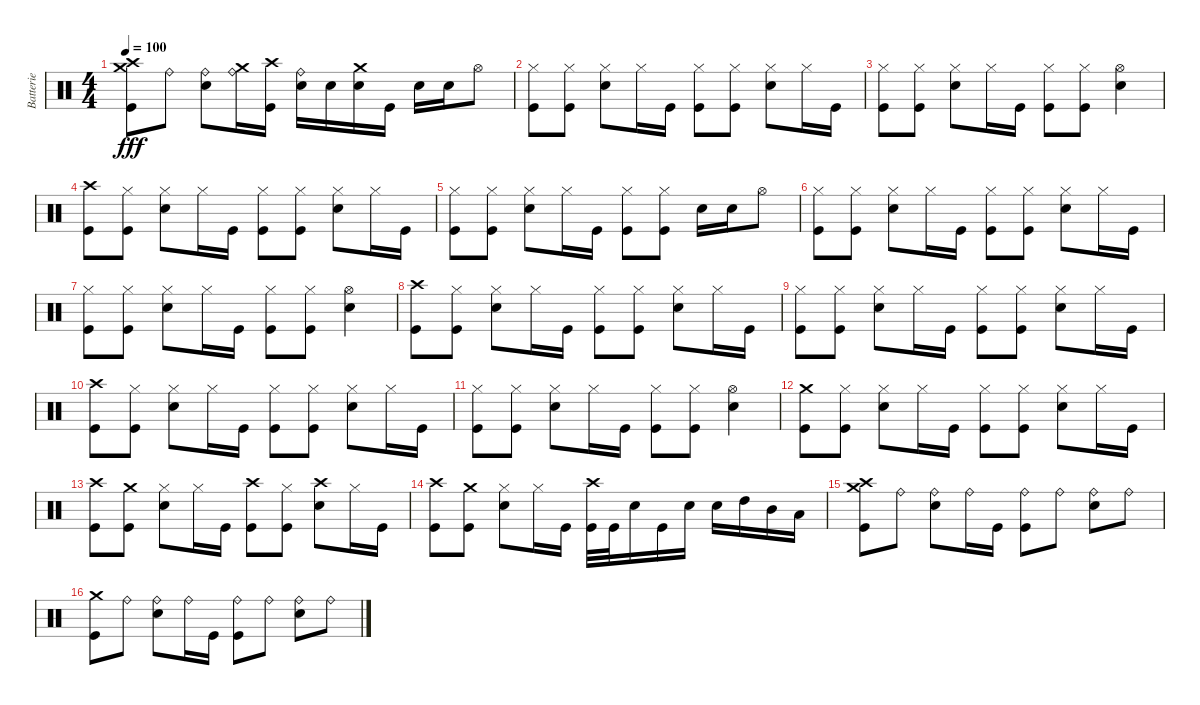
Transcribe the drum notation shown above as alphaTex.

\track ("Batterie" "Batterie") {instrument percussion}
\staff {score}
\articulation defaults
\ts (4 4)
\tempo 100
\clef neutral
\ks c
("Crash high (hit)" "Kick (hit)" "Crash medium (hit)").8{dy fff} "Ride (bell)".8 ("Ride (bell)" "Electric Snare (hit)").8 ("Ride (bell)" "Crash medium (hit)").16 ("Crash high (hit)" "Kick (hit)").16 ("Ride (bell)" "Electric Snare (hit)").16 "Electric Snare (hit)".16 ("Crash medium (hit)" "Electric Snare (hit)").16 "Kick (hit)".16 "Electric Snare (hit)".16 "Electric Snare (hit)".16 "Hi-Hat (open)".8 |
("Hi-Hat (closed)" "Kick (hit)").8 ("Hi-Hat (closed)" "Kick (hit)").8 ("Hi-Hat (closed)" "Electric Snare (hit)").8 "Hi-Hat (closed)".16 "Kick (hit)".16 ("Hi-Hat (closed)" "Kick (hit)").8 ("Hi-Hat (closed)" "Kick (hit)").8 ("Hi-Hat (closed)" "Electric Snare (hit)").8 "Hi-Hat (closed)".16 "Kick (hit)".16 |
("Hi-Hat (closed)" "Kick (hit)").8 ("Hi-Hat (closed)" "Kick (hit)").8 ("Hi-Hat (closed)" "Electric Snare (hit)").8 "Hi-Hat (closed)".16 "Kick (hit)".16 ("Hi-Hat (closed)" "Kick (hit)").8 ("Hi-Hat (closed)" "Kick (hit)").8 ("Hi-Hat (open)" "Electric Snare (hit)").4 |
("Crash high (hit)" "Kick (hit)").8 ("Hi-Hat (closed)" "Kick (hit)").8 ("Hi-Hat (closed)" "Electric Snare (hit)").8 "Hi-Hat (closed)".16 "Kick (hit)".16 ("Hi-Hat (closed)" "Kick (hit)").8 ("Hi-Hat (closed)" "Kick (hit)").8 ("Hi-Hat (closed)" "Electric Snare (hit)").8 "Hi-Hat (closed)".16 "Kick (hit)".16 |
("Hi-Hat (closed)" "Kick (hit)").8 ("Hi-Hat (closed)" "Kick (hit)").8 ("Hi-Hat (closed)" "Electric Snare (hit)").8 "Hi-Hat (closed)".16 "Kick (hit)".16 ("Hi-Hat (closed)" "Kick (hit)").8 ("Hi-Hat (closed)" "Kick (hit)").8 "Electric Snare (hit)".16 "Electric Snare (hit)".16 "Hi-Hat (open)".8 |
("Hi-Hat (closed)" "Kick (hit)").8 ("Hi-Hat (closed)" "Kick (hit)").8 ("Hi-Hat (closed)" "Electric Snare (hit)").8 "Hi-Hat (closed)".16 "Kick (hit)".16 ("Hi-Hat (closed)" "Kick (hit)").8 ("Hi-Hat (closed)" "Kick (hit)").8 ("Hi-Hat (closed)" "Electric Snare (hit)").8 "Hi-Hat (closed)".16 "Kick (hit)".16 |
("Hi-Hat (closed)" "Kick (hit)").8 ("Hi-Hat (closed)" "Kick (hit)").8 ("Hi-Hat (closed)" "Electric Snare (hit)").8 "Hi-Hat (closed)".16 "Kick (hit)".16 ("Hi-Hat (closed)" "Kick (hit)").8 ("Hi-Hat (closed)" "Kick (hit)").8 ("Hi-Hat (open)" "Electric Snare (hit)").4 |
("Crash high (hit)" "Kick (hit)").8 ("Hi-Hat (closed)" "Kick (hit)").8 ("Hi-Hat (closed)" "Electric Snare (hit)").8 "Hi-Hat (closed)".16 "Kick (hit)".16 ("Hi-Hat (closed)" "Kick (hit)").8 ("Hi-Hat (closed)" "Kick (hit)").8 ("Hi-Hat (closed)" "Electric Snare (hit)").8 "Hi-Hat (closed)".16 "Kick (hit)".16 |
("Hi-Hat (closed)" "Kick (hit)").8 ("Hi-Hat (closed)" "Kick (hit)").8 ("Hi-Hat (closed)" "Electric Snare (hit)").8 "Hi-Hat (closed)".16 "Kick (hit)".16 ("Hi-Hat (closed)" "Kick (hit)").8 ("Hi-Hat (closed)" "Kick (hit)").8 ("Hi-Hat (closed)" "Electric Snare (hit)").8 "Hi-Hat (closed)".16 "Kick (hit)".16 |
("Crash high (hit)" "Kick (hit)").8 ("Hi-Hat (closed)" "Kick (hit)").8 ("Hi-Hat (closed)" "Electric Snare (hit)").8 "Hi-Hat (closed)".16 "Kick (hit)".16 ("Hi-Hat (closed)" "Kick (hit)").8 ("Hi-Hat (closed)" "Kick (hit)").8 ("Hi-Hat (closed)" "Electric Snare (hit)").8 "Hi-Hat (closed)".16 "Kick (hit)".16 |
("Hi-Hat (closed)" "Kick (hit)").8 ("Hi-Hat (closed)" "Kick (hit)").8 ("Hi-Hat (closed)" "Electric Snare (hit)").8 "Hi-Hat (closed)".16 "Kick (hit)".16 ("Hi-Hat (closed)" "Kick (hit)").8 ("Hi-Hat (closed)" "Kick (hit)").8 ("Hi-Hat (open)" "Electric Snare (hit)").4 |
("Crash medium (hit)" "Kick (hit)").8 ("Hi-Hat (closed)" "Kick (hit)").8 ("Hi-Hat (closed)" "Electric Snare (hit)").8 "Hi-Hat (closed)".16 "Kick (hit)".16 ("Hi-Hat (closed)" "Kick (hit)").8 ("Hi-Hat (closed)" "Kick (hit)").8 ("Hi-Hat (closed)" "Electric Snare (hit)").8 "Hi-Hat (closed)".16 "Kick (hit)".16 |
("Crash high (hit)" "Kick (hit)").8 ("Crash medium (hit)" "Kick (hit)").8 ("Hi-Hat (closed)" "Electric Snare (hit)").8 "Hi-Hat (closed)".16 "Kick (hit)".16 ("Crash high (hit)" "Kick (hit)").8 ("Hi-Hat (closed)" "Kick (hit)").8 ("Crash high (hit)" "Electric Snare (hit)").8 "Hi-Hat (closed)".16 "Kick (hit)".16 |
("Crash high (hit)" "Kick (hit)").8 ("Crash medium (hit)" "Kick (hit)").8 ("Hi-Hat (closed)" "Electric Snare (hit)").8 "Hi-Hat (closed)".16 "Kick (hit)".16 ("Crash high (hit)" "Kick (hit)").32 "Kick (hit)".32 "Electric Snare (hit)".16 "Kick (hit)".16 "Electric Snare (hit)".16 "Electric Snare (hit)".16 "High Tom (hit)".16 "Mid Tom (hit)".16 "Low Floor Tom (hit)".16 |
("Crash high (hit)" "Kick (hit)" "Crash medium (hit)").8 "Ride (bell)".8 ("Ride (bell)" "Electric Snare (hit)").8 "Ride (bell)".16 "Kick (hit)".16 ("Ride (bell)" "Kick (hit)").8 "Ride (bell)".8 ("Ride (bell)" "Electric Snare (hit)").8 "Ride (bell)".8 |
("Crash medium (hit)" "Kick (hit)").8 "Ride (bell)".8 ("Ride (bell)" "Electric Snare (hit)").8 "Ride (bell)".16 "Kick (hit)".16 ("Ride (bell)" "Kick (hit)").8 "Ride (bell)".8 ("Ride (bell)" "Electric Snare (hit)").8 "Ride (bell)".8
